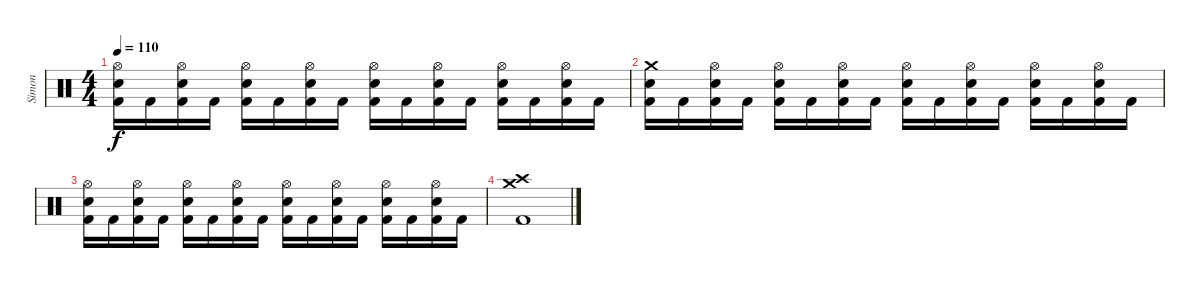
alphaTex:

\track ("Simon" "Simon") {instrument percussion}
\staff {score}
\articulation defaults
\ts (4 4)
\tempo 110
\clef neutral
\ks c
("Hi-Hat (open)" "Snare (hit) 2" "Kick (hit) 2").16{dy f} "Kick (hit) 2".16 ("Hi-Hat (open)" "Snare (hit) 2" "Kick (hit) 2").16 "Kick (hit) 2".16 ("Hi-Hat (open)" "Snare (hit) 2" "Kick (hit) 2").16 "Kick (hit) 2".16 ("Hi-Hat (open)" "Snare (hit) 2" "Kick (hit) 2").16 "Kick (hit) 2".16 ("Hi-Hat (open)" "Snare (hit) 2" "Kick (hit) 2").16 "Kick (hit) 2".16 ("Hi-Hat (open)" "Snare (hit) 2" "Kick (hit) 2").16 "Kick (hit) 2".16 ("Hi-Hat (open)" "Snare (hit) 2" "Kick (hit) 2").16 "Kick (hit) 2".16 ("Hi-Hat (open)" "Snare (hit) 2" "Kick (hit) 2").16 "Kick (hit) 2".16 |
("Crash medium (hit)" "Snare (hit) 2" "Kick (hit) 2").16 "Kick (hit) 2".16 ("Hi-Hat (open)" "Snare (hit) 2" "Kick (hit) 2").16 "Kick (hit) 2".16 ("Hi-Hat (open)" "Snare (hit) 2" "Kick (hit) 2").16 "Kick (hit) 2".16 ("Hi-Hat (open)" "Snare (hit) 2" "Kick (hit) 2").16 "Kick (hit) 2".16 ("Hi-Hat (open)" "Snare (hit) 2" "Kick (hit) 2").16 "Kick (hit) 2".16 ("Hi-Hat (open)" "Snare (hit) 2" "Kick (hit) 2").16 "Kick (hit) 2".16 ("Hi-Hat (open)" "Snare (hit) 2" "Kick (hit) 2").16 "Kick (hit) 2".16 ("Hi-Hat (open)" "Snare (hit) 2" "Kick (hit) 2").16 "Kick (hit) 2".16 |
("Hi-Hat (open)" "Snare (hit) 2" "Kick (hit) 2").16 "Kick (hit) 2".16 ("Hi-Hat (open)" "Snare (hit) 2" "Kick (hit) 2").16 "Kick (hit) 2".16 ("Hi-Hat (open)" "Snare (hit) 2" "Kick (hit) 2").16 "Kick (hit) 2".16 ("Hi-Hat (open)" "Snare (hit) 2" "Kick (hit) 2").16 "Kick (hit) 2".16 ("Hi-Hat (open)" "Snare (hit) 2" "Kick (hit) 2").16 "Kick (hit) 2".16 ("Hi-Hat (open)" "Snare (hit) 2" "Kick (hit) 2").16 "Kick (hit) 2".16 ("Hi-Hat (open)" "Snare (hit) 2" "Kick (hit) 2").16 "Kick (hit) 2".16 ("Hi-Hat (open)" "Snare (hit) 2" "Kick (hit) 2").16 "Kick (hit) 2".16 |
("Crash high (hit)" "Crash medium (hit)" "Kick (hit) 2").1
